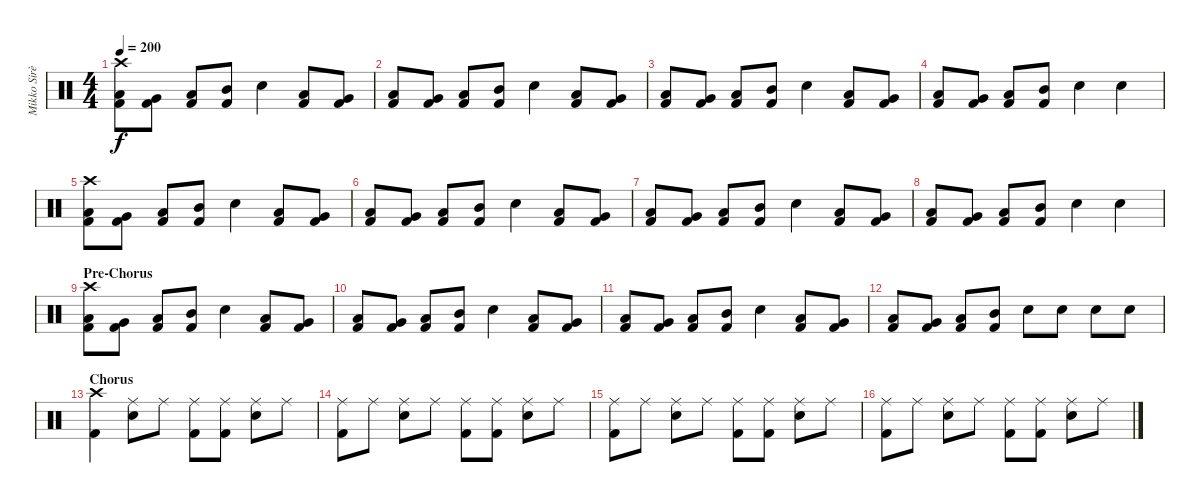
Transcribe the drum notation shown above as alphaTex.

\track ("Mikko Sirèn" "Mikko Sirè") {instrument percussion}
\staff {score}
\articulation defaults
\ts (4 4)
\tempo 200
\clef neutral
\ks c
("Crash high (hit)" "Low Floor Tom (hit)" "Kick (hit) 2").8{dy f} ("Very Low Tom (hit)" "Kick (hit) 2").8 ("Low Tom (hit)" "Kick (hit) 2").8 ("Mid Tom (hit)" "Kick (hit) 2").8 "Electric Snare (hit)".4 ("Low Floor Tom (hit)" "Kick (hit) 2").8 ("Very Low Tom (hit)" "Kick (hit) 2").8 |
("Low Floor Tom (hit)" "Kick (hit) 2").8 ("Very Low Tom (hit)" "Kick (hit) 2").8 ("Low Tom (hit)" "Kick (hit) 2").8 ("Mid Tom (hit)" "Kick (hit) 2").8 "Electric Snare (hit)".4 ("Low Floor Tom (hit)" "Kick (hit) 2").8 ("Very Low Tom (hit)" "Kick (hit) 2").8 |
("Low Floor Tom (hit)" "Kick (hit) 2").8 ("Very Low Tom (hit)" "Kick (hit) 2").8 ("Low Tom (hit)" "Kick (hit) 2").8 ("Mid Tom (hit)" "Kick (hit) 2").8 "Electric Snare (hit)".4 ("Low Floor Tom (hit)" "Kick (hit) 2").8 ("Very Low Tom (hit)" "Kick (hit) 2").8 |
("Low Floor Tom (hit)" "Kick (hit) 2").8 ("Very Low Tom (hit)" "Kick (hit) 2").8 ("Low Tom (hit)" "Kick (hit) 2").8 ("Mid Tom (hit)" "Kick (hit) 2").8 "Electric Snare (hit)".4 "Electric Snare (hit)".4 |
("Crash high (hit)" "Low Floor Tom (hit)" "Kick (hit) 2").8 ("Very Low Tom (hit)" "Kick (hit) 2").8 ("Low Tom (hit)" "Kick (hit) 2").8 ("Mid Tom (hit)" "Kick (hit) 2").8 "Electric Snare (hit)".4 ("Low Floor Tom (hit)" "Kick (hit) 2").8 ("Very Low Tom (hit)" "Kick (hit) 2").8 |
("Low Floor Tom (hit)" "Kick (hit) 2").8 ("Very Low Tom (hit)" "Kick (hit) 2").8 ("Low Tom (hit)" "Kick (hit) 2").8 ("Mid Tom (hit)" "Kick (hit) 2").8 "Electric Snare (hit)".4 ("Low Floor Tom (hit)" "Kick (hit) 2").8 ("Very Low Tom (hit)" "Kick (hit) 2").8 |
("Low Floor Tom (hit)" "Kick (hit) 2").8 ("Very Low Tom (hit)" "Kick (hit) 2").8 ("Low Tom (hit)" "Kick (hit) 2").8 ("Mid Tom (hit)" "Kick (hit) 2").8 "Electric Snare (hit)".4 ("Low Floor Tom (hit)" "Kick (hit) 2").8 ("Very Low Tom (hit)" "Kick (hit) 2").8 |
("Low Floor Tom (hit)" "Kick (hit) 2").8 ("Very Low Tom (hit)" "Kick (hit) 2").8 ("Low Tom (hit)" "Kick (hit) 2").8 ("Mid Tom (hit)" "Kick (hit) 2").8 "Electric Snare (hit)".4 "Electric Snare (hit)".4 |
\section ("" "Pre-Chorus")
("Crash high (hit)" "Low Floor Tom (hit)" "Kick (hit) 2").8 ("Very Low Tom (hit)" "Kick (hit) 2").8 ("Low Tom (hit)" "Kick (hit) 2").8 ("Mid Tom (hit)" "Kick (hit) 2").8 "Electric Snare (hit)".4 ("Low Floor Tom (hit)" "Kick (hit) 2").8 ("Very Low Tom (hit)" "Kick (hit) 2").8 |
("Low Floor Tom (hit)" "Kick (hit) 2").8 ("Very Low Tom (hit)" "Kick (hit) 2").8 ("Low Tom (hit)" "Kick (hit) 2").8 ("Mid Tom (hit)" "Kick (hit) 2").8 "Electric Snare (hit)".4 ("Low Floor Tom (hit)" "Kick (hit) 2").8 ("Very Low Tom (hit)" "Kick (hit) 2").8 |
("Low Floor Tom (hit)" "Kick (hit) 2").8 ("Very Low Tom (hit)" "Kick (hit) 2").8 ("Low Tom (hit)" "Kick (hit) 2").8 ("Mid Tom (hit)" "Kick (hit) 2").8 "Electric Snare (hit)".4 ("Low Floor Tom (hit)" "Kick (hit) 2").8 ("Very Low Tom (hit)" "Kick (hit) 2").8 |
("Low Floor Tom (hit)" "Kick (hit) 2").8 ("Very Low Tom (hit)" "Kick (hit) 2").8 ("Low Tom (hit)" "Kick (hit) 2").8 ("Mid Tom (hit)" "Kick (hit) 2").8 "Electric Snare (hit)".8 "Electric Snare (hit)".8 "Electric Snare (hit)".8 "Electric Snare (hit)".8 |
\section ("" "Chorus")
("Crash high (hit)" "Kick (hit) 2").4 ("Ride (middle)" "Electric Snare (hit)").8 "Ride (middle)".8 ("Ride (middle)" "Kick (hit) 2").8 ("Ride (middle)" "Kick (hit) 2").8 ("Ride (middle)" "Electric Snare (hit)").8 "Ride (middle)".8 |
("Ride (middle)" "Kick (hit) 2").8 "Ride (middle)".8 ("Ride (middle)" "Electric Snare (hit)").8 "Ride (middle)".8 ("Ride (middle)" "Kick (hit) 2").8 ("Ride (middle)" "Kick (hit) 2").8 ("Ride (middle)" "Electric Snare (hit)").8 "Ride (middle)".8 |
("Ride (middle)" "Kick (hit) 2").8 "Ride (middle)".8 ("Ride (middle)" "Electric Snare (hit)").8 "Ride (middle)".8 ("Ride (middle)" "Kick (hit) 2").8 ("Ride (middle)" "Kick (hit) 2").8 ("Ride (middle)" "Electric Snare (hit)").8 "Ride (middle)".8 |
("Ride (middle)" "Kick (hit) 2").8 "Ride (middle)".8 ("Ride (middle)" "Electric Snare (hit)").8 "Ride (middle)".8 ("Ride (middle)" "Kick (hit) 2").8 ("Ride (middle)" "Kick (hit) 2").8 ("Ride (middle)" "Electric Snare (hit)").8 "Ride (middle)".8
